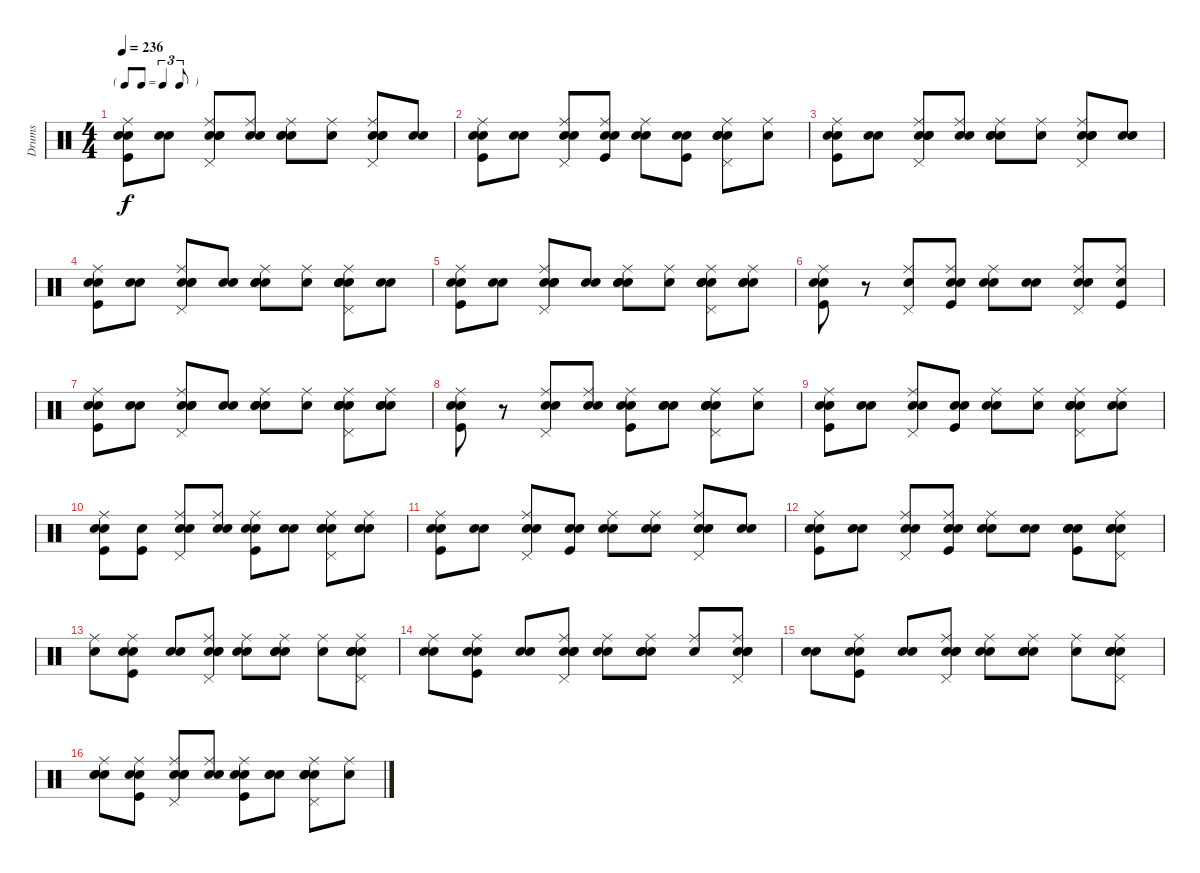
\track ("Drums" "Drums") {instrument percussion}
\staff {score}
\articulation defaults
\ts (4 4)
\tf triplet8th
\tempo 236
\clef neutral
\ks c
("Snare (hit)" "Kick (hit)" "Electric Snare (hit)" "Ride (middle)").8{dy f} ("Snare (hit)" "Electric Snare (hit)").8 ("Snare (hit)" "Snare (hit) 2" "Electric Snare (hit)" "Ride (middle)" "Pedal Hi-Hat (hit)").8 ("Snare (hit)" "Snare (hit) 2" "Ride (middle)").8 ("Snare (hit)" "Snare (hit) 2" "Electric Snare (hit)" "Ride (middle)").8 ("Snare (hit)" "Ride (middle)").8 ("Snare (hit)" "Snare (hit) 2" "Electric Snare (hit)" "Ride (middle)" "Pedal Hi-Hat (hit)").8 ("Snare (hit)" "Snare (hit) 2").8 |
("Snare (hit)" "Kick (hit)" "Electric Snare (hit)" "Ride (middle)").8 ("Snare (hit)" "Electric Snare (hit)").8 ("Snare (hit)" "Snare (hit) 2" "Ride (middle)" "Pedal Hi-Hat (hit)").8 ("Snare (hit)" "Kick (hit)" "Snare (hit) 2" "Ride (middle)").8 ("Snare (hit)" "Electric Snare (hit)" "Ride (middle)").8 ("Snare (hit)" "Kick (hit)" "Electric Snare (hit)").8 ("Snare (hit)" "Electric Snare (hit)" "Ride (middle)" "Pedal Hi-Hat (hit)" "Hand Clap (hit)").8 ("Snare (hit)" "Ride (middle)").8 |
("Snare (hit)" "Kick (hit)" "Electric Snare (hit)" "Ride (middle)").8 ("Snare (hit)" "Electric Snare (hit)").8 ("Snare (hit)" "Snare (hit) 2" "Electric Snare (hit)" "Ride (middle)" "Pedal Hi-Hat (hit)").8 ("Snare (hit)" "Snare (hit) 2" "Ride (middle)").8 ("Snare (hit)" "Snare (hit) 2" "Electric Snare (hit)" "Ride (middle)").8 ("Snare (hit)" "Ride (middle)").8 ("Snare (hit)" "Snare (hit) 2" "Electric Snare (hit)" "Ride (middle)" "Pedal Hi-Hat (hit)").8 ("Snare (hit)" "Snare (hit) 2").8 |
("Snare (hit)" "Kick (hit)" "Electric Snare (hit)" "Ride (middle)").8 ("Snare (hit)" "Electric Snare (hit)").8 ("Snare (hit)" "Snare (hit) 2" "Electric Snare (hit)" "Ride (middle)" "Pedal Hi-Hat (hit)").8 ("Snare (hit)" "Snare (hit) 2").8 ("Snare (hit)" "Snare (hit) 2" "Electric Snare (hit)" "Ride (middle)").8 ("Snare (hit)" "Ride (middle)").8 ("Snare (hit)" "Snare (hit) 2" "Electric Snare (hit)" "Ride (middle)" "Pedal Hi-Hat (hit)" "Hand Clap (hit)").8 ("Snare (hit)" "Snare (hit) 2").8 |
("Snare (hit)" "Kick (hit)" "Electric Snare (hit)" "Ride (middle)").8 ("Snare (hit)" "Electric Snare (hit)").8 ("Snare (hit)" "Snare (hit) 2" "Electric Snare (hit)" "Ride (middle)" "Pedal Hi-Hat (hit)").8 ("Snare (hit)" "Snare (hit) 2").8 ("Snare (hit)" "Snare (hit) 2" "Electric Snare (hit)" "Ride (middle)").8 ("Snare (hit)" "Ride (middle)").8 ("Snare (hit)" "Snare (hit) 2" "Electric Snare (hit)" "Ride (middle)" "Pedal Hi-Hat (hit)" "Hand Clap (hit)").8 ("Snare (hit)" "Snare (hit) 2" "Ride (middle)" "Hand Clap (hit)").8 |
("Snare (hit)" "Kick (hit)" "Electric Snare (hit)" "Ride (middle)").8 r.8 ("Snare (hit) 2" "Ride (middle)" "Pedal Hi-Hat (hit)").8 ("Snare (hit)" "Kick (hit)" "Snare (hit) 2" "Ride (middle)").8 ("Snare (hit)" "Electric Snare (hit)" "Ride (middle)").8 ("Snare (hit)" "Hand Clap (hit)").8 ("Snare (hit)" "Snare (hit) 2" "Ride (middle)" "Pedal Hi-Hat (hit)").8 ("Snare (hit)" "Kick (hit)" "Ride (middle)").8 |
("Snare (hit)" "Kick (hit)" "Electric Snare (hit)" "Ride (middle)").8 ("Snare (hit)" "Electric Snare (hit)").8 ("Snare (hit)" "Snare (hit) 2" "Electric Snare (hit)" "Ride (middle)" "Pedal Hi-Hat (hit)").8 ("Snare (hit)" "Snare (hit) 2").8 ("Snare (hit)" "Snare (hit) 2" "Electric Snare (hit)" "Ride (middle)").8 ("Snare (hit)" "Ride (middle)").8 ("Snare (hit)" "Snare (hit) 2" "Electric Snare (hit)" "Ride (middle)" "Pedal Hi-Hat (hit)" "Hand Clap (hit)").8 ("Snare (hit)" "Snare (hit) 2" "Ride (middle)" "Hand Clap (hit)").8 |
("Snare (hit)" "Kick (hit)" "Electric Snare (hit)" "Ride (middle)").8 r.8 ("Snare (hit) 2" "Electric Snare (hit)" "Ride (middle)" "Pedal Hi-Hat (hit)").8 ("Snare (hit)" "Ride (middle)" "Hand Clap (hit)").8 ("Snare (hit)" "Kick (hit)" "Electric Snare (hit)" "Ride (middle)").8 ("Snare (hit)" "Electric Snare (hit)" "Hand Clap (hit)").8 ("Snare (hit)" "Snare (hit) 2" "Electric Snare (hit)" "Ride (middle)" "Pedal Hi-Hat (hit)" "Hand Clap (hit)").8 ("Snare (hit)" "Ride (middle)").8 |
("Snare (hit)" "Kick (hit)" "Electric Snare (hit)" "Ride (middle)").8 ("Snare (hit)" "Electric Snare (hit)").8 ("Snare (hit)" "Snare (hit) 2" "Ride (middle)" "Pedal Hi-Hat (hit)").8 ("Snare (hit)" "Kick (hit)" "Snare (hit) 2").8 ("Snare (hit)" "Electric Snare (hit)" "Ride (middle)").8 ("Snare (hit)" "Ride (middle)").8 ("Snare (hit)" "Snare (hit) 2" "Ride (middle)" "Pedal Hi-Hat (hit)" "Hand Clap (hit)").8 ("Snare (hit)" "Ride (middle)" "Hand Clap (hit)").8 |
("Snare (hit)" "Kick (hit)" "Electric Snare (hit)" "Ride (middle)").8 ("Snare (hit)" "Kick (hit)").8 ("Snare (hit)" "Snare (hit) 2" "Ride (middle)" "Pedal Hi-Hat (hit)").8 ("Snare (hit)" "Snare (hit) 2" "Ride (middle)").8 ("Snare (hit)" "Kick (hit)" "Electric Snare (hit)" "Ride (middle)").8 ("Snare (hit)" "Hand Clap (hit)").8 ("Snare (hit)" "Snare (hit) 2" "Ride (middle)" "Pedal Hi-Hat (hit)" "Hand Clap (hit)").8 ("Snare (hit)" "Snare (hit) 2" "Ride (middle)").8 |
("Snare (hit)" "Kick (hit)" "Electric Snare (hit)" "Ride (middle)").8 ("Snare (hit)" "Electric Snare (hit)").8 ("Snare (hit)" "Snare (hit) 2" "Ride (middle)" "Pedal Hi-Hat (hit)").8 ("Snare (hit)" "Kick (hit)" "Hand Clap (hit)").8 ("Snare (hit)" "Electric Snare (hit)" "Ride (middle)").8 ("Snare (hit)" "Ride (middle)" "Hand Clap (hit)").8 ("Snare (hit)" "Snare (hit) 2" "Ride (middle)" "Pedal Hi-Hat (hit)").8 ("Snare (hit)" "Hand Clap (hit)").8 |
("Snare (hit)" "Kick (hit)" "Electric Snare (hit)" "Ride (middle)").8 ("Snare (hit)" "Electric Snare (hit)").8 ("Snare (hit)" "Snare (hit) 2" "Ride (middle)" "Pedal Hi-Hat (hit)").8 ("Snare (hit)" "Kick (hit)" "Snare (hit) 2" "Ride (middle)").8 ("Snare (hit)" "Electric Snare (hit)" "Ride (middle)").8 ("Snare (hit)" "Snare (hit) 2").8 ("Snare (hit)" "Kick (hit)" "Electric Snare (hit)" "Hand Clap (hit)").8 ("Snare (hit)" "Electric Snare (hit)" "Ride (middle)" "Pedal Hi-Hat (hit)" "Hand Clap (hit)").8 |
("Snare (hit)" "Ride (middle)").8 ("Snare (hit)" "Kick (hit)" "Electric Snare (hit)" "Ride (middle)").8 ("Snare (hit)" "Electric Snare (hit)").8 ("Snare (hit)" "Snare (hit) 2" "Electric Snare (hit)" "Ride (middle)" "Pedal Hi-Hat (hit)").8 ("Snare (hit)" "Snare (hit) 2" "Ride (middle)").8 ("Snare (hit)" "Snare (hit) 2" "Electric Snare (hit)" "Ride (middle)").8 ("Snare (hit)" "Ride (middle)").8 ("Snare (hit)" "Snare (hit) 2" "Electric Snare (hit)" "Ride (middle)" "Pedal Hi-Hat (hit)" "Hand Clap (hit)").8 |
("Snare (hit)" "Snare (hit) 2" "Ride (middle)").8 ("Snare (hit)" "Kick (hit)" "Electric Snare (hit)" "Ride (middle)").8 ("Snare (hit)" "Electric Snare (hit)").8 ("Snare (hit)" "Snare (hit) 2" "Electric Snare (hit)" "Ride (middle)" "Pedal Hi-Hat (hit)").8 ("Snare (hit)" "Snare (hit) 2" "Ride (middle)").8 ("Snare (hit)" "Snare (hit) 2" "Electric Snare (hit)" "Ride (middle)").8 ("Snare (hit)" "Ride (middle)").8 ("Snare (hit)" "Snare (hit) 2" "Electric Snare (hit)" "Ride (middle)" "Pedal Hi-Hat (hit)").8 |
("Snare (hit)" "Snare (hit) 2").8 ("Snare (hit)" "Kick (hit)" "Electric Snare (hit)" "Ride (middle)").8 ("Snare (hit)" "Electric Snare (hit)").8 ("Snare (hit)" "Snare (hit) 2" "Electric Snare (hit)" "Ride (middle)" "Pedal Hi-Hat (hit)").8 ("Snare (hit)" "Snare (hit) 2" "Ride (middle)").8 ("Snare (hit)" "Snare (hit) 2" "Electric Snare (hit)" "Ride (middle)").8 ("Snare (hit)" "Ride (middle)").8 ("Snare (hit)" "Snare (hit) 2" "Electric Snare (hit)" "Ride (middle)" "Pedal Hi-Hat (hit)" "Hand Clap (hit)").8 |
("Snare (hit)" "Snare (hit) 2" "Ride (middle)" "Hand Clap (hit)").8 ("Snare (hit)" "Kick (hit)" "Electric Snare (hit)" "Ride (middle)").8 ("Snare (hit)" "Snare (hit) 2" "Electric Snare (hit)" "Ride (middle)" "Pedal Hi-Hat (hit)").8 ("Snare (hit)" "Snare (hit) 2" "Ride (middle)").8 ("Snare (hit)" "Kick (hit)" "Electric Snare (hit)" "Ride (middle)").8 ("Snare (hit)" "Electric Snare (hit)" "Hand Clap (hit)").8 ("Snare (hit)" "Snare (hit) 2" "Electric Snare (hit)" "Ride (middle)" "Pedal Hi-Hat (hit)" "Hand Clap (hit)").8 ("Snare (hit)" "Ride (middle)").8
